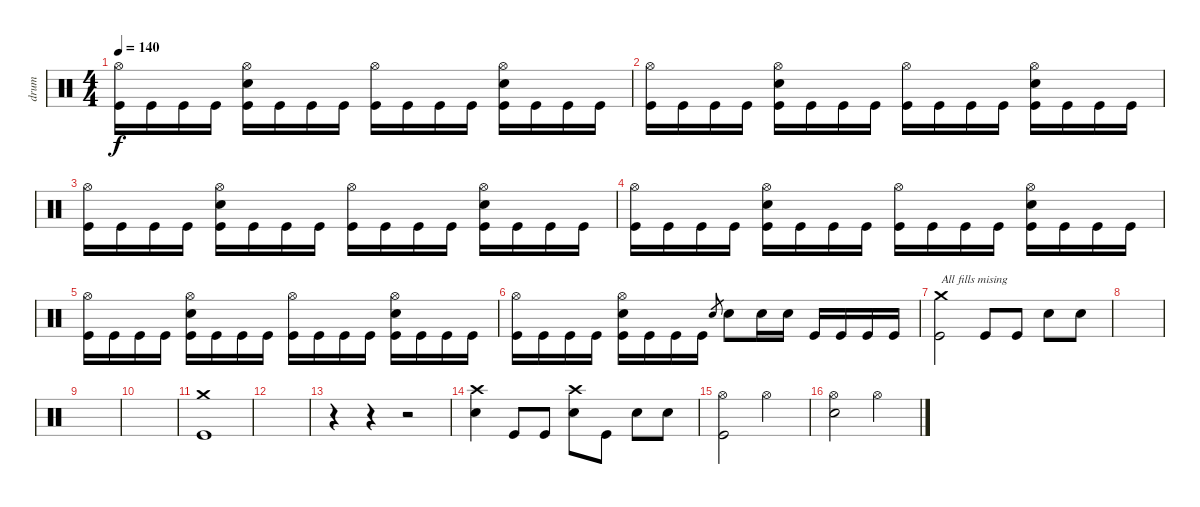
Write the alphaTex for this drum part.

\track ("drum" "drum") {instrument percussion}
\staff {score}
\articulation defaults
\ts (4 4)
\tempo 140
\clef neutral
\ks c
("Hi-Hat (open)" "Kick (hit)").16{dy f} "Kick (hit)".16 "Kick (hit)".16 "Kick (hit)".16 ("Hi-Hat (open)" "Snare (hit) 2" "Kick (hit)").16 "Kick (hit)".16 "Kick (hit)".16 "Kick (hit)".16 ("Hi-Hat (open)" "Kick (hit)").16 "Kick (hit)".16 "Kick (hit)".16 "Kick (hit)".16 ("Hi-Hat (open)" "Snare (hit) 2" "Kick (hit)").16 "Kick (hit)".16 "Kick (hit)".16 "Kick (hit)".16 |
("Hi-Hat (open)" "Kick (hit)").16 "Kick (hit)".16 "Kick (hit)".16 "Kick (hit)".16 ("Hi-Hat (open)" "Snare (hit) 2" "Kick (hit)").16 "Kick (hit)".16 "Kick (hit)".16 "Kick (hit)".16 ("Hi-Hat (open)" "Kick (hit)").16 "Kick (hit)".16 "Kick (hit)".16 "Kick (hit)".16 ("Hi-Hat (open)" "Snare (hit) 2" "Kick (hit)").16 "Kick (hit)".16 "Kick (hit)".16 "Kick (hit)".16 |
("Hi-Hat (open)" "Kick (hit)").16 "Kick (hit)".16 "Kick (hit)".16 "Kick (hit)".16 ("Hi-Hat (open)" "Snare (hit) 2" "Kick (hit)").16 "Kick (hit)".16 "Kick (hit)".16 "Kick (hit)".16 ("Hi-Hat (open)" "Kick (hit)").16 "Kick (hit)".16 "Kick (hit)".16 "Kick (hit)".16 ("Hi-Hat (open)" "Snare (hit) 2" "Kick (hit)").16 "Kick (hit)".16 "Kick (hit)".16 "Kick (hit)".16 |
("Hi-Hat (open)" "Kick (hit)").16 "Kick (hit)".16 "Kick (hit)".16 "Kick (hit)".16 ("Hi-Hat (open)" "Snare (hit) 2" "Kick (hit)").16 "Kick (hit)".16 "Kick (hit)".16 "Kick (hit)".16 ("Hi-Hat (open)" "Kick (hit)").16 "Kick (hit)".16 "Kick (hit)".16 "Kick (hit)".16 ("Hi-Hat (open)" "Snare (hit) 2" "Kick (hit)").16 "Kick (hit)".16 "Kick (hit)".16 "Kick (hit)".16 |
("Hi-Hat (open)" "Kick (hit)").16 "Kick (hit)".16 "Kick (hit)".16 "Kick (hit)".16 ("Hi-Hat (open)" "Snare (hit) 2" "Kick (hit)").16 "Kick (hit)".16 "Kick (hit)".16 "Kick (hit)".16 ("Hi-Hat (open)" "Kick (hit)").16 "Kick (hit)".16 "Kick (hit)".16 "Kick (hit)".16 ("Hi-Hat (open)" "Snare (hit) 2" "Kick (hit)").16 "Kick (hit)".16 "Kick (hit)".16 "Kick (hit)".16 |
("Hi-Hat (open)" "Kick (hit)").16 "Kick (hit)".16 "Kick (hit)".16 "Kick (hit)".16 ("Hi-Hat (open)" "Snare (hit) 2" "Kick (hit)").16 "Kick (hit)".16 "Kick (hit)".16 "Kick (hit)".16 "Snare (hit) 2".8{gr} "Snare (hit) 2".8 "Snare (hit) 2".16 "Snare (hit) 2".16 "Kick (hit)".16 "Kick (hit)".16 "Kick (hit)".16 "Kick (hit)".16 |
("Crash medium (hit)" "Kick (hit)").2{txt "All fills mising"} "Kick (hit)".8 "Kick (hit)".8 "Snare (hit) 2".8 "Snare (hit) 2".8 |
|
|
|
("Crash medium (hit)" "Kick (hit)").1 |
|
r.4 r.4 r.2 |
("Crash high (hit)" "Snare (hit) 2").4 "Kick (hit)".8 "Kick (hit)".8 ("Crash high (hit)" "Snare (hit) 2").8 "Kick (hit)".8 "Snare (hit) 2".8 "Snare (hit) 2".8 |
("Hi-Hat (open)" "Kick (hit)").2 "Hi-Hat (open)".2 |
("Hi-Hat (open)" "Snare (hit) 2").2 "Hi-Hat (open)".2
